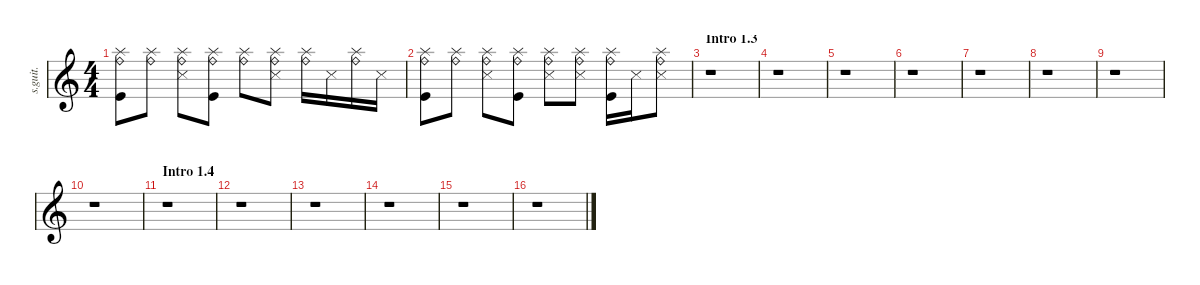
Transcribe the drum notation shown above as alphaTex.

\defaultSystemsLayout 4
\hideDynamics
\bracketExtendMode nobrackets
\track ("Sample Drums" "s.guit.") {instrument percussion}
\staff {score}
\articulation defaults
\ts (4 4)
\tempo (192 hide)
\clef g2
\ks c
("Splash (hit)" "Ride (bell)" "Kick (hit)").8{lyrics (0 "") lyrics (1 "") lyrics (2 "") lyrics (3 "") lyrics (4 "") dy mf} ("Splash (hit)" "Ride (bell)").8{lyrics (0 "") lyrics (1 "") lyrics (2 "") lyrics (3 "") lyrics (4 "")} ("Splash (hit)" "Ride (bell)" "Snare (side stick) 3").8{lyrics (0 "") lyrics (1 "") lyrics (2 "") lyrics (3 "") lyrics (4 "")} ("Splash (hit)" "Ride (bell)" "Kick (hit)").8{lyrics (0 "") lyrics (1 "") lyrics (2 "") lyrics (3 "") lyrics (4 "")} ("Splash (hit)" "Ride (bell)").8{lyrics (0 "") lyrics (1 "") lyrics (2 "") lyrics (3 "") lyrics (4 "")} ("Splash (hit)" "Ride (bell)" "Snare (side stick) 3").8{lyrics (0 "") lyrics (1 "") lyrics (2 "") lyrics (3 "") lyrics (4 "")} ("Splash (hit)" "Ride (bell)").16{lyrics (0 "") lyrics (1 "") lyrics (2 "") lyrics (3 "") lyrics (4 "")} "Snare (side stick) 3".16{lyrics (0 "") lyrics (1 "") lyrics (2 "") lyrics (3 "") lyrics (4 "")} ("Splash (hit)" "Ride (bell)").16{lyrics (0 "") lyrics (1 "") lyrics (2 "") lyrics (3 "") lyrics (4 "")} "Snare (side stick) 3".16{lyrics (0 "") lyrics (1 "") lyrics (2 "") lyrics (3 "") lyrics (4 "")} |
("Splash (hit)" "Ride (bell)" "Kick (hit)").8{lyrics (0 "") lyrics (1 "") lyrics (2 "") lyrics (3 "") lyrics (4 "")} ("Splash (hit)" "Ride (bell)").8{lyrics (0 "") lyrics (1 "") lyrics (2 "") lyrics (3 "") lyrics (4 "")} ("Splash (hit)" "Ride (bell)" "Snare (side stick) 3").8{lyrics (0 "") lyrics (1 "") lyrics (2 "") lyrics (3 "") lyrics (4 "")} ("Splash (hit)" "Ride (bell)" "Kick (hit)").8{lyrics (0 "") lyrics (1 "") lyrics (2 "") lyrics (3 "") lyrics (4 "")} ("Splash (hit)" "Ride (bell)" "Snare (side stick) 3").8{lyrics (0 "") lyrics (1 "") lyrics (2 "") lyrics (3 "") lyrics (4 "")} ("Splash (hit)" "Ride (bell)" "Snare (side stick) 3").8{lyrics (0 "") lyrics (1 "") lyrics (2 "") lyrics (3 "") lyrics (4 "")} ("Splash (hit)" "Ride (bell)" "Kick (hit)").16{lyrics (0 "") lyrics (1 "") lyrics (2 "") lyrics (3 "") lyrics (4 "")} "Snare (side stick) 3".16{lyrics (0 "") lyrics (1 "") lyrics (2 "") lyrics (3 "") lyrics (4 "")} ("Splash (hit)" "Ride (bell)" "Snare (side stick) 3").8{lyrics (0 "") lyrics (1 "") lyrics (2 "") lyrics (3 "") lyrics (4 "")} |
\section ("" "Intro 1.3")
\tempo (195 hide)
r.1 |
r.1 |
r.1 |
\tempo (200 hide)
r.1 |
\tempo (205 hide)
r.1 |
r.1 |
r.1 |
r.1 |
\section ("" "Intro 1.4")
\tempo (210 hide)
r.1 |
r.1 |
r.1 |
r.1 |
r.1 |
r.1
